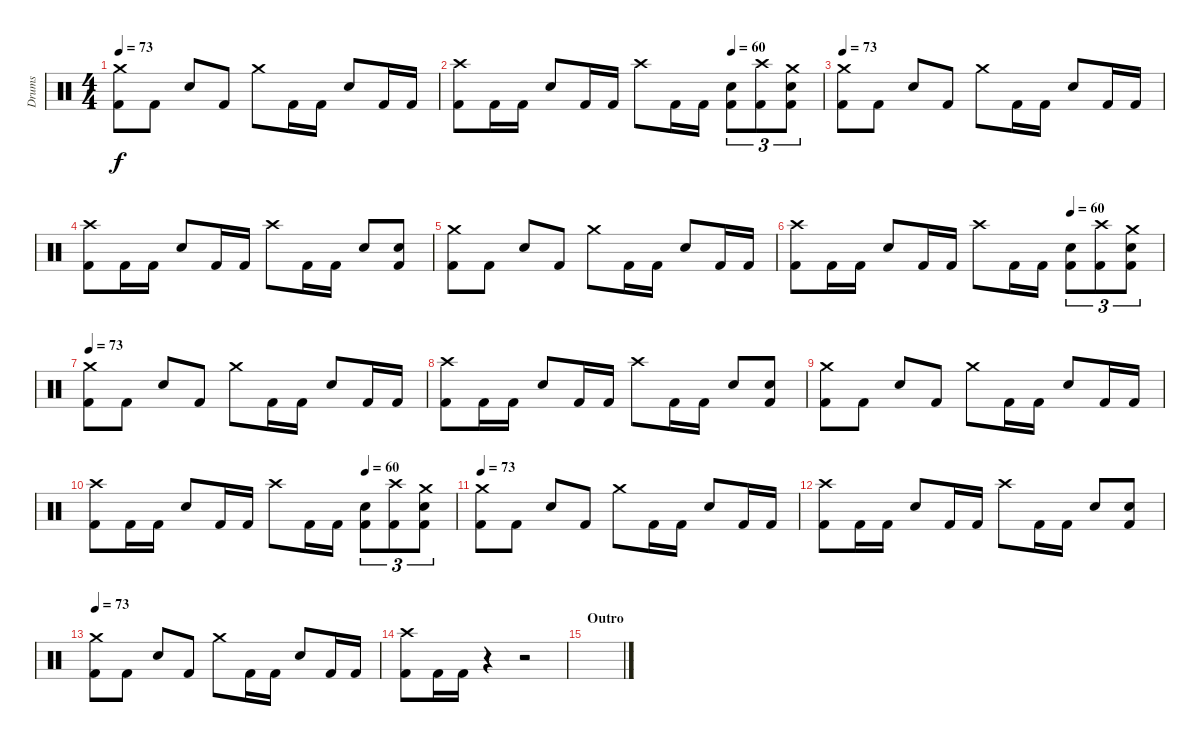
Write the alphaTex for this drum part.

\track ("Drums" "Drums") {instrument percussion}
\staff {score}
\articulation defaults
\ts (4 4)
\tempo 73
\clef neutral
\ks c
("Crash medium (hit)" "Kick (hit) 2").8{dy f} "Kick (hit) 2".8 "Snare (hit) 2".8 "Kick (hit) 2".8 "Crash medium (hit)".8 "Kick (hit) 2".16 "Kick (hit) 2".16 "Snare (hit) 2".8 "Kick (hit) 2".16 "Kick (hit) 2".16 |
\tempo (60 0.75)
("Crash high (hit)" "Kick (hit) 2").8 "Kick (hit) 2".16 "Kick (hit) 2".16 "Snare (hit) 2".8 "Kick (hit) 2".16 "Kick (hit) 2".16 "Crash high (hit)".8 "Kick (hit) 2".16 "Kick (hit) 2".16 ("Snare (hit) 2" "Kick (hit) 2").8{tu (3 2)} ("Crash high (hit)" "Kick (hit) 2").8{tu (3 2)} ("Crash medium (hit)" "Snare (hit) 2" "Kick (hit) 2").8{tu (3 2)} |
\tempo 73
("Crash medium (hit)" "Kick (hit) 2").8 "Kick (hit) 2".8 "Snare (hit) 2".8 "Kick (hit) 2".8 "Crash medium (hit)".8 "Kick (hit) 2".16 "Kick (hit) 2".16 "Snare (hit) 2".8 "Kick (hit) 2".16 "Kick (hit) 2".16 |
("Crash high (hit)" "Kick (hit) 2").8 "Kick (hit) 2".16 "Kick (hit) 2".16 "Snare (hit) 2".8 "Kick (hit) 2".16 "Kick (hit) 2".16 "Crash high (hit)".8 "Kick (hit) 2".16 "Kick (hit) 2".16 "Snare (hit) 2".8 ("Snare (hit) 2" "Kick (hit) 2").8 |
("Crash medium (hit)" "Kick (hit) 2").8 "Kick (hit) 2".8 "Snare (hit) 2".8 "Kick (hit) 2".8 "Crash medium (hit)".8 "Kick (hit) 2".16 "Kick (hit) 2".16 "Snare (hit) 2".8 "Kick (hit) 2".16 "Kick (hit) 2".16 |
\tempo (60 0.75)
("Crash high (hit)" "Kick (hit) 2").8 "Kick (hit) 2".16 "Kick (hit) 2".16 "Snare (hit) 2".8 "Kick (hit) 2".16 "Kick (hit) 2".16 "Crash high (hit)".8 "Kick (hit) 2".16 "Kick (hit) 2".16 ("Snare (hit) 2" "Kick (hit) 2").8{tu (3 2)} ("Crash high (hit)" "Kick (hit) 2").8{tu (3 2)} ("Crash medium (hit)" "Snare (hit) 2" "Kick (hit) 2").8{tu (3 2)} |
\tempo 73
("Crash medium (hit)" "Kick (hit) 2").8 "Kick (hit) 2".8 "Snare (hit) 2".8 "Kick (hit) 2".8 "Crash medium (hit)".8 "Kick (hit) 2".16 "Kick (hit) 2".16 "Snare (hit) 2".8 "Kick (hit) 2".16 "Kick (hit) 2".16 |
("Crash high (hit)" "Kick (hit) 2").8 "Kick (hit) 2".16 "Kick (hit) 2".16 "Snare (hit) 2".8 "Kick (hit) 2".16 "Kick (hit) 2".16 "Crash high (hit)".8 "Kick (hit) 2".16 "Kick (hit) 2".16 "Snare (hit) 2".8 ("Snare (hit) 2" "Kick (hit) 2").8 |
("Crash medium (hit)" "Kick (hit) 2").8 "Kick (hit) 2".8 "Snare (hit) 2".8 "Kick (hit) 2".8 "Crash medium (hit)".8 "Kick (hit) 2".16 "Kick (hit) 2".16 "Snare (hit) 2".8 "Kick (hit) 2".16 "Kick (hit) 2".16 |
\tempo (60 0.75)
("Crash high (hit)" "Kick (hit) 2").8 "Kick (hit) 2".16 "Kick (hit) 2".16 "Snare (hit) 2".8 "Kick (hit) 2".16 "Kick (hit) 2".16 "Crash high (hit)".8 "Kick (hit) 2".16 "Kick (hit) 2".16 ("Snare (hit) 2" "Kick (hit) 2").8{tu (3 2)} ("Crash high (hit)" "Kick (hit) 2").8{tu (3 2)} ("Crash medium (hit)" "Snare (hit) 2" "Kick (hit) 2").8{tu (3 2)} |
\tempo 73
("Crash medium (hit)" "Kick (hit) 2").8 "Kick (hit) 2".8 "Snare (hit) 2".8 "Kick (hit) 2".8 "Crash medium (hit)".8 "Kick (hit) 2".16 "Kick (hit) 2".16 "Snare (hit) 2".8 "Kick (hit) 2".16 "Kick (hit) 2".16 |
("Crash high (hit)" "Kick (hit) 2").8 "Kick (hit) 2".16 "Kick (hit) 2".16 "Snare (hit) 2".8 "Kick (hit) 2".16 "Kick (hit) 2".16 "Crash high (hit)".8 "Kick (hit) 2".16 "Kick (hit) 2".16 "Snare (hit) 2".8 ("Snare (hit) 2" "Kick (hit) 2").8 |
\tempo 73
("Crash medium (hit)" "Kick (hit) 2").8 "Kick (hit) 2".8 "Snare (hit) 2".8 "Kick (hit) 2".8 "Crash medium (hit)".8 "Kick (hit) 2".16 "Kick (hit) 2".16 "Snare (hit) 2".8 "Kick (hit) 2".16 "Kick (hit) 2".16 |
("Crash high (hit)" "Kick (hit) 2").8 "Kick (hit) 2".16 "Kick (hit) 2".16 r.4 r.2 |
\section ("" "Outro")
